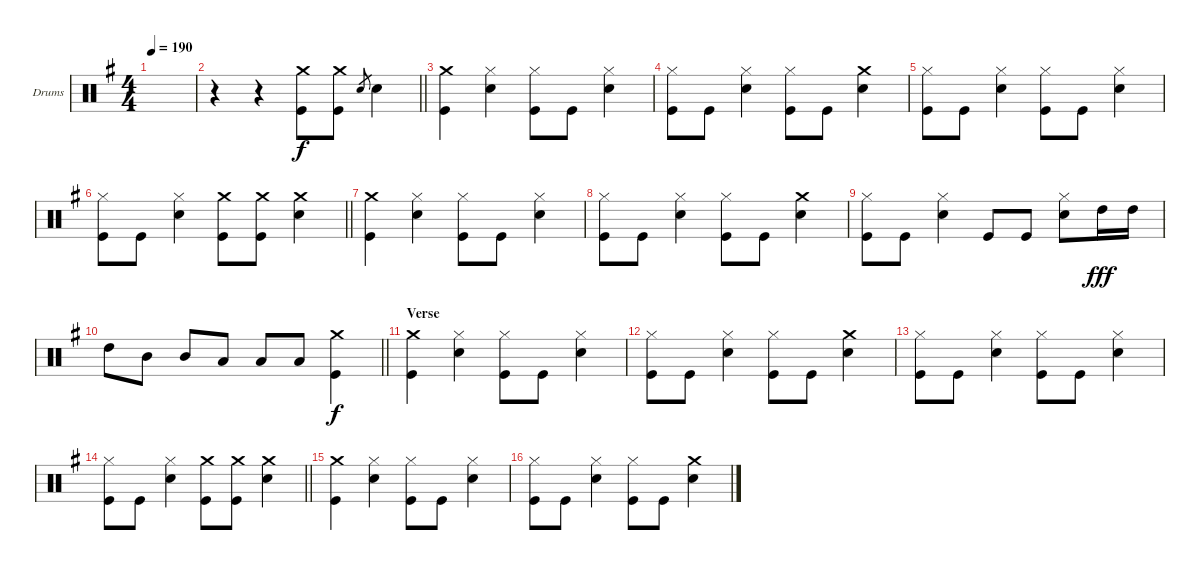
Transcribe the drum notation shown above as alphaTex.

\bracketExtendMode groupsimilarinstruments
\firstSystemTrackNameOrientation horizontal
\otherSystemsTrackNameOrientation horizontal
\track ("Drums" "Drums") {instrument percussion}
\staff {score}
\articulation defaults
\ts (4 4)
\tempo 190
\clef neutral
\ks g
|
\barLineRight lightlight
r.4 r.4 ("Crash medium (hit)" "Kick (hit)").8 ("Crash medium (hit)" "Kick (hit)").8 "Snare (hit) 2".8{gr} "Snare (hit) 2".4 |
("Crash medium (hit)" "Kick (hit)").4 ("Snare (hit) 2" "Hi-Hat (closed)").4 ("Kick (hit)" "Hi-Hat (closed)").8 "Kick (hit)".8 ("Snare (hit) 2" "Hi-Hat (closed)").4 |
("Kick (hit)" "Hi-Hat (closed)").8 "Kick (hit)".8 ("Snare (hit) 2" "Hi-Hat (closed)").4 ("Kick (hit)" "Hi-Hat (closed)").8 "Kick (hit)".8 ("Crash medium (hit)" "Snare (hit) 2").4 |
("Kick (hit)" "Hi-Hat (closed)").8 "Kick (hit)".8 ("Snare (hit) 2" "Hi-Hat (closed)").4 ("Kick (hit)" "Hi-Hat (closed)").8 "Kick (hit)".8 ("Snare (hit) 2" "Hi-Hat (closed)").4 |
\barLineRight lightlight
("Kick (hit)" "Hi-Hat (closed)").8 "Kick (hit)".8 ("Snare (hit) 2" "Hi-Hat (closed)").4 ("Crash medium (hit)" "Kick (hit)").8 ("Crash medium (hit)" "Kick (hit)").8 ("Crash medium (hit)" "Snare (hit) 2").4 |
("Crash medium (hit)" "Kick (hit)").4 ("Snare (hit) 2" "Hi-Hat (closed)").4 ("Kick (hit)" "Hi-Hat (closed)").8 "Kick (hit)".8 ("Snare (hit) 2" "Hi-Hat (closed)").4 |
("Kick (hit)" "Hi-Hat (closed)").8 "Kick (hit)".8 ("Snare (hit) 2" "Hi-Hat (closed)").4 ("Kick (hit)" "Hi-Hat (closed)").8 "Kick (hit)".8 ("Crash medium (hit)" "Snare (hit) 2").4 |
("Kick (hit)" "Hi-Hat (closed)").8 "Kick (hit)".8 ("Snare (hit) 2" "Hi-Hat (closed)").4 "Kick (hit)".8 "Kick (hit)".8 ("Snare (hit) 2" "Hi-Hat (closed)").8 "High Tom (hit)".16{dy fff} "High Tom (hit)".16 |
\barLineRight lightlight "High Tom (hit)".8 "Mid Tom (hit)".8 "Mid Tom (hit)".8 "Low Tom (hit)".8 "Low Tom (hit)".8 "Low Tom (hit)".8
("Crash medium (hit)" "Kick (hit)").4{dy f} |
\section ("" "Verse")
("Crash medium (hit)" "Kick (hit)").4 ("Snare (hit) 2" "Hi-Hat (closed)").4 ("Kick (hit)" "Hi-Hat (closed)").8 "Kick (hit)".8 ("Snare (hit) 2" "Hi-Hat (closed)").4 |
("Kick (hit)" "Hi-Hat (closed)").8 "Kick (hit)".8 ("Snare (hit) 2" "Hi-Hat (closed)").4 ("Kick (hit)" "Hi-Hat (closed)").8 "Kick (hit)".8 ("Crash medium (hit)" "Snare (hit) 2").4 |
("Kick (hit)" "Hi-Hat (closed)").8 "Kick (hit)".8 ("Snare (hit) 2" "Hi-Hat (closed)").4 ("Kick (hit)" "Hi-Hat (closed)").8 "Kick (hit)".8 ("Snare (hit) 2" "Hi-Hat (closed)").4 |
\barLineRight lightlight
("Kick (hit)" "Hi-Hat (closed)").8 "Kick (hit)".8 ("Snare (hit) 2" "Hi-Hat (closed)").4 ("Crash medium (hit)" "Kick (hit)").8 ("Crash medium (hit)" "Kick (hit)").8 ("Crash medium (hit)" "Snare (hit) 2").4 |
("Crash medium (hit)" "Kick (hit)").4 ("Snare (hit) 2" "Hi-Hat (closed)").4 ("Kick (hit)" "Hi-Hat (closed)").8 "Kick (hit)".8 ("Snare (hit) 2" "Hi-Hat (closed)").4 |
("Kick (hit)" "Hi-Hat (closed)").8 "Kick (hit)".8 ("Snare (hit) 2" "Hi-Hat (closed)").4 ("Kick (hit)" "Hi-Hat (closed)").8 "Kick (hit)".8 ("Crash medium (hit)" "Snare (hit) 2").4
